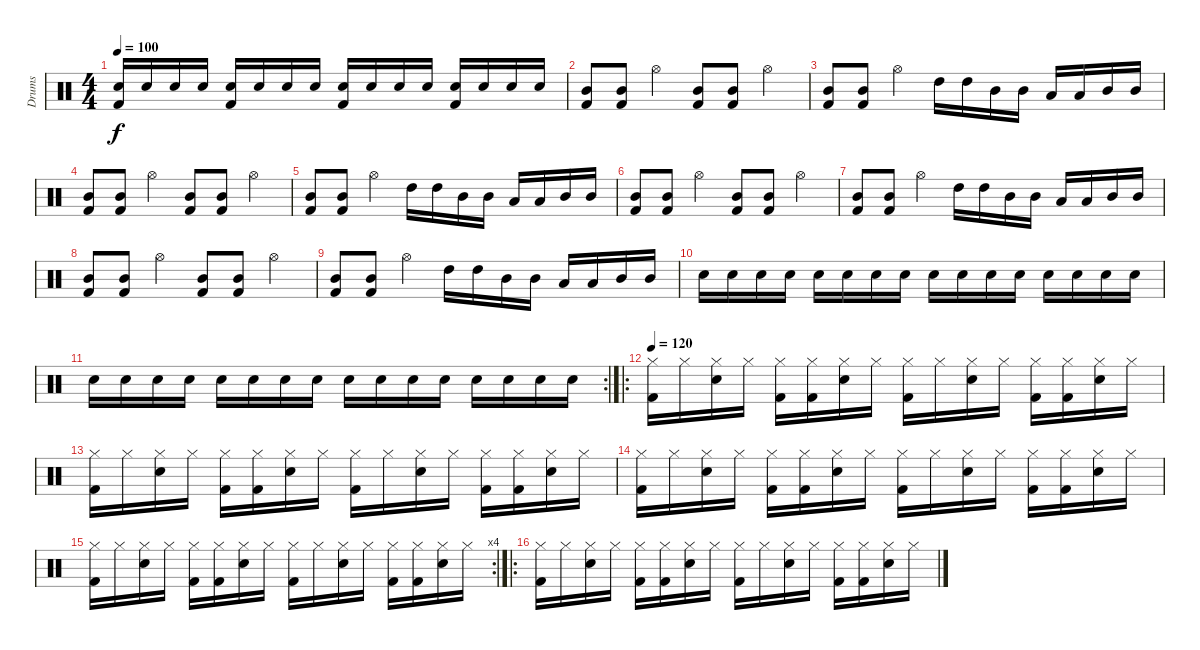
\track ("Drums" "Drums") {instrument percussion}
\staff {score}
\articulation defaults
\ts (4 4)
\tempo 100
\clef neutral
\ks c
("Kick (hit) 2" "Electric Snare (hit)").16{dy f} "Electric Snare (hit)".16 "Electric Snare (hit)".16 "Electric Snare (hit)".16 ("Kick (hit) 2" "Electric Snare (hit)").16 "Electric Snare (hit)".16 "Electric Snare (hit)".16 "Electric Snare (hit)".16 ("Kick (hit) 2" "Electric Snare (hit)").16 "Electric Snare (hit)".16 "Electric Snare (hit)".16 "Electric Snare (hit)".16 ("Kick (hit) 2" "Electric Snare (hit)").16 "Electric Snare (hit)".16 "Electric Snare (hit)".16 "Electric Snare (hit)".16 |
("Kick (hit) 2" "Mid Tom (hit)").8 ("Kick (hit) 2" "Mid Tom (hit)").8 "Hi-Hat (open)".4 ("Kick (hit) 2" "Mid Tom (hit)").8 ("Kick (hit) 2" "Mid Tom (hit)").8 "Hi-Hat (open)".4 |
("Kick (hit) 2" "Mid Tom (hit)").8 ("Kick (hit) 2" "Mid Tom (hit)").8 "Hi-Hat (open)".4 "High Tom (hit)".16 "High Tom (hit)".16 "Mid Tom (hit)".16 "Mid Tom (hit)".16 "Low Tom (hit)".16 "Low Tom (hit)".16 "Mid Tom (hit)".16 "Mid Tom (hit)".16 |
("Kick (hit) 2" "Mid Tom (hit)").8 ("Kick (hit) 2" "Mid Tom (hit)").8 "Hi-Hat (open)".4 ("Kick (hit) 2" "Mid Tom (hit)").8 ("Kick (hit) 2" "Mid Tom (hit)").8 "Hi-Hat (open)".4 |
("Kick (hit) 2" "Mid Tom (hit)").8 ("Kick (hit) 2" "Mid Tom (hit)").8 "Hi-Hat (open)".4 "High Tom (hit)".16 "High Tom (hit)".16 "Mid Tom (hit)".16 "Mid Tom (hit)".16 "Low Tom (hit)".16 "Low Tom (hit)".16 "Mid Tom (hit)".16 "Mid Tom (hit)".16 |
("Kick (hit) 2" "Mid Tom (hit)").8 ("Kick (hit) 2" "Mid Tom (hit)").8 "Hi-Hat (open)".4 ("Kick (hit) 2" "Mid Tom (hit)").8 ("Kick (hit) 2" "Mid Tom (hit)").8 "Hi-Hat (open)".4 |
("Kick (hit) 2" "Mid Tom (hit)").8 ("Kick (hit) 2" "Mid Tom (hit)").8 "Hi-Hat (open)".4 "High Tom (hit)".16 "High Tom (hit)".16 "Mid Tom (hit)".16 "Mid Tom (hit)".16 "Low Tom (hit)".16 "Low Tom (hit)".16 "Mid Tom (hit)".16 "Mid Tom (hit)".16 |
("Kick (hit) 2" "Mid Tom (hit)").8 ("Kick (hit) 2" "Mid Tom (hit)").8 "Hi-Hat (open)".4 ("Kick (hit) 2" "Mid Tom (hit)").8 ("Kick (hit) 2" "Mid Tom (hit)").8 "Hi-Hat (open)".4 |
("Kick (hit) 2" "Mid Tom (hit)").8 ("Kick (hit) 2" "Mid Tom (hit)").8 "Hi-Hat (open)".4 "High Tom (hit)".16 "High Tom (hit)".16 "Mid Tom (hit)".16 "Mid Tom (hit)".16 "Low Tom (hit)".16 "Low Tom (hit)".16 "Mid Tom (hit)".16 "Mid Tom (hit)".16 |
"Electric Snare (hit)".16 "Electric Snare (hit)".16 "Electric Snare (hit)".16 "Electric Snare (hit)".16 "Electric Snare (hit)".16 "Electric Snare (hit)".16 "Electric Snare (hit)".16 "Electric Snare (hit)".16 "Electric Snare (hit)".16 "Electric Snare (hit)".16 "Electric Snare (hit)".16 "Electric Snare (hit)".16 "Electric Snare (hit)".16 "Electric Snare (hit)".16 "Electric Snare (hit)".16 "Electric Snare (hit)".16 |
\rc 2 "Electric Snare (hit)".16 "Electric Snare (hit)".16 "Electric Snare (hit)".16 "Electric Snare (hit)".16 "Electric Snare (hit)".16 "Electric Snare (hit)".16 "Electric Snare (hit)".16 "Electric Snare (hit)".16 "Electric Snare (hit)".16 "Electric Snare (hit)".16 "Electric Snare (hit)".16 "Electric Snare (hit)".16 "Electric Snare (hit)".16 "Electric Snare (hit)".16 "Electric Snare (hit)".16 "Electric Snare (hit)".16
|
\ro
\tempo 120
("Hi-Hat (closed)" "Kick (hit) 2").16 "Hi-Hat (closed)".16 ("Electric Snare (hit)" "Hi-Hat (closed)").16 "Hi-Hat (closed)".16 ("Hi-Hat (closed)" "Kick (hit) 2").16 ("Hi-Hat (closed)" "Kick (hit) 2").16 ("Electric Snare (hit)" "Hi-Hat (closed)").16 "Hi-Hat (closed)".16 ("Hi-Hat (closed)" "Kick (hit) 2").16 "Hi-Hat (closed)".16 ("Electric Snare (hit)" "Hi-Hat (closed)").16 "Hi-Hat (closed)".16 ("Hi-Hat (closed)" "Kick (hit) 2").16 ("Hi-Hat (closed)" "Kick (hit) 2").16 ("Electric Snare (hit)" "Hi-Hat (closed)").16 "Hi-Hat (closed)".16 |
("Hi-Hat (closed)" "Kick (hit) 2").16 "Hi-Hat (closed)".16 ("Electric Snare (hit)" "Hi-Hat (closed)").16 "Hi-Hat (closed)".16 ("Hi-Hat (closed)" "Kick (hit) 2").16 ("Hi-Hat (closed)" "Kick (hit) 2").16 ("Electric Snare (hit)" "Hi-Hat (closed)").16 "Hi-Hat (closed)".16 ("Hi-Hat (closed)" "Kick (hit) 2").16 "Hi-Hat (closed)".16 ("Electric Snare (hit)" "Hi-Hat (closed)").16 "Hi-Hat (closed)".16 ("Hi-Hat (closed)" "Kick (hit) 2").16 ("Hi-Hat (closed)" "Kick (hit) 2").16 ("Electric Snare (hit)" "Hi-Hat (closed)").16 "Hi-Hat (closed)".16 |
("Hi-Hat (closed)" "Kick (hit) 2").16 "Hi-Hat (closed)".16 ("Electric Snare (hit)" "Hi-Hat (closed)").16 "Hi-Hat (closed)".16 ("Hi-Hat (closed)" "Kick (hit) 2").16 ("Hi-Hat (closed)" "Kick (hit) 2").16 ("Electric Snare (hit)" "Hi-Hat (closed)").16 "Hi-Hat (closed)".16 ("Hi-Hat (closed)" "Kick (hit) 2").16 "Hi-Hat (closed)".16 ("Electric Snare (hit)" "Hi-Hat (closed)").16 "Hi-Hat (closed)".16 ("Hi-Hat (closed)" "Kick (hit) 2").16 ("Hi-Hat (closed)" "Kick (hit) 2").16 ("Electric Snare (hit)" "Hi-Hat (closed)").16 "Hi-Hat (closed)".16 |
\rc 4
("Hi-Hat (closed)" "Kick (hit) 2").16 "Hi-Hat (closed)".16 ("Electric Snare (hit)" "Hi-Hat (closed)").16 "Hi-Hat (closed)".16 ("Hi-Hat (closed)" "Kick (hit) 2").16 ("Hi-Hat (closed)" "Kick (hit) 2").16 ("Electric Snare (hit)" "Hi-Hat (closed)").16 "Hi-Hat (closed)".16 ("Hi-Hat (closed)" "Kick (hit) 2").16 "Hi-Hat (closed)".16 ("Electric Snare (hit)" "Hi-Hat (closed)").16 "Hi-Hat (closed)".16 ("Hi-Hat (closed)" "Kick (hit) 2").16 ("Hi-Hat (closed)" "Kick (hit) 2").16 ("Electric Snare (hit)" "Hi-Hat (closed)").16 "Hi-Hat (closed)".16 |
\ro
("Hi-Hat (closed)" "Kick (hit) 2").16 "Hi-Hat (closed)".16 ("Electric Snare (hit)" "Hi-Hat (closed)").16 "Hi-Hat (closed)".16 ("Hi-Hat (closed)" "Kick (hit) 2").16 ("Hi-Hat (closed)" "Kick (hit) 2").16 ("Electric Snare (hit)" "Hi-Hat (closed)").16 "Hi-Hat (closed)".16 ("Hi-Hat (closed)" "Kick (hit) 2").16 "Hi-Hat (closed)".16 ("Electric Snare (hit)" "Hi-Hat (closed)").16 "Hi-Hat (closed)".16 ("Hi-Hat (closed)" "Kick (hit) 2").16 ("Hi-Hat (closed)" "Kick (hit) 2").16 ("Electric Snare (hit)" "Hi-Hat (closed)").16 "Hi-Hat (closed)".16
